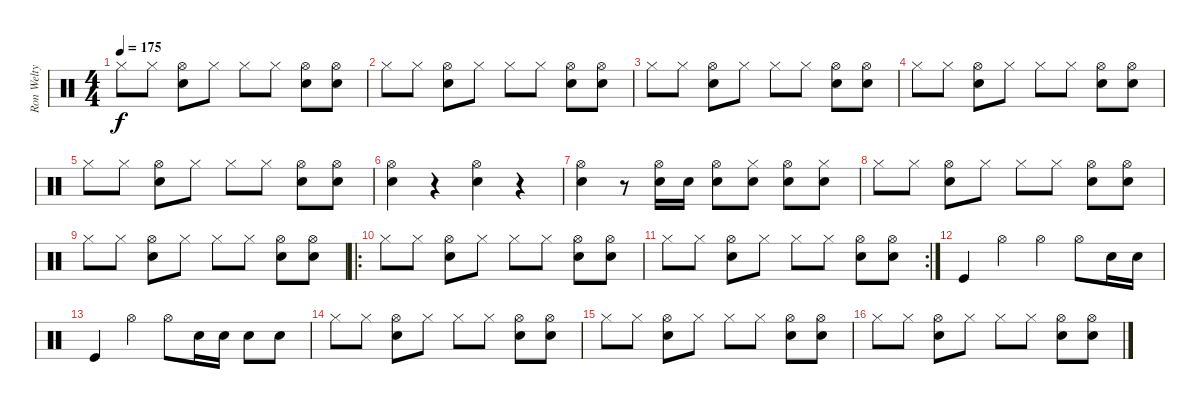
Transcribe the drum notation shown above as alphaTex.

\track ("Ron Welty" "Ron Welty") {instrument percussion}
\staff {score}
\articulation defaults
\ts (4 4)
\tempo 175
\clef neutral
\ks c "Hi-Hat (closed)".8{dy f} "Hi-Hat (closed)".8
("Snare (hit) 2" "Hi-Hat (open)").8 "Hi-Hat (closed)".8 "Hi-Hat (closed)".8 "Hi-Hat (closed)".8 ("Snare (hit) 2" "Hi-Hat (open)").8 ("Snare (hit) 2" "Hi-Hat (open)").8 |
"Hi-Hat (closed)".8 "Hi-Hat (closed)".8 ("Snare (hit) 2" "Hi-Hat (open)").8 "Hi-Hat (closed)".8 "Hi-Hat (closed)".8 "Hi-Hat (closed)".8 ("Snare (hit) 2" "Hi-Hat (open)").8 ("Snare (hit) 2" "Hi-Hat (open)").8 |
"Hi-Hat (closed)".8 "Hi-Hat (closed)".8 ("Snare (hit) 2" "Hi-Hat (open)").8 "Hi-Hat (closed)".8 "Hi-Hat (closed)".8 "Hi-Hat (closed)".8 ("Snare (hit) 2" "Hi-Hat (open)").8 ("Snare (hit) 2" "Hi-Hat (open)").8 |
"Hi-Hat (closed)".8 "Hi-Hat (closed)".8 ("Snare (hit) 2" "Hi-Hat (open)").8 "Hi-Hat (closed)".8 "Hi-Hat (closed)".8 "Hi-Hat (closed)".8 ("Snare (hit) 2" "Hi-Hat (open)").8 ("Snare (hit) 2" "Hi-Hat (open)").8 |
"Hi-Hat (closed)".8 "Hi-Hat (closed)".8 ("Snare (hit) 2" "Hi-Hat (open)").8 "Hi-Hat (closed)".8 "Hi-Hat (closed)".8 "Hi-Hat (closed)".8 ("Snare (hit) 2" "Hi-Hat (open)").8 ("Snare (hit) 2" "Hi-Hat (open)").8 |
("Snare (hit) 2" "Hi-Hat (open)").4 r.4 ("Snare (hit) 2" "Hi-Hat (open)").4 r.4 |
("Snare (hit) 2" "Hi-Hat (open)").4 r.8 ("Snare (hit) 2" "Hi-Hat (open)").16 "Snare (hit) 2".16 ("Snare (hit) 2" "Hi-Hat (open)").8 ("Snare (hit) 2" "Hi-Hat (closed)").8 ("Snare (hit) 2" "Hi-Hat (open)").8 ("Snare (hit) 2" "Hi-Hat (closed)").8 |
"Hi-Hat (closed)".8 "Hi-Hat (closed)".8 ("Snare (hit) 2" "Hi-Hat (open)").8 "Hi-Hat (closed)".8 "Hi-Hat (closed)".8 "Hi-Hat (closed)".8 ("Snare (hit) 2" "Hi-Hat (open)").8 ("Snare (hit) 2" "Hi-Hat (open)").8 |
"Hi-Hat (closed)".8 "Hi-Hat (closed)".8 ("Snare (hit) 2" "Hi-Hat (open)").8 "Hi-Hat (closed)".8 "Hi-Hat (closed)".8 "Hi-Hat (closed)".8 ("Snare (hit) 2" "Hi-Hat (open)").8 ("Snare (hit) 2" "Hi-Hat (open)").8 |
\ro "Hi-Hat (closed)".8 "Hi-Hat (closed)".8
("Snare (hit) 2" "Hi-Hat (open)").8 "Hi-Hat (closed)".8 "Hi-Hat (closed)".8 "Hi-Hat (closed)".8 ("Snare (hit) 2" "Hi-Hat (open)").8 ("Snare (hit) 2" "Hi-Hat (open)").8 |
\rc 2 "Hi-Hat (closed)".8 "Hi-Hat (closed)".8
("Snare (hit) 2" "Hi-Hat (open)").8 "Hi-Hat (closed)".8 "Hi-Hat (closed)".8 "Hi-Hat (closed)".8 ("Snare (hit) 2" "Hi-Hat (open)").8 ("Snare (hit) 2" "Hi-Hat (open)").8 |
"Kick (hit)".4 "Hi-Hat (open)".4 "Hi-Hat (open)".4 "Hi-Hat (open)".8 "Snare (hit) 2".16 "Snare (hit) 2".16 |
"Kick (hit)".4 "Hi-Hat (open)".4 "Hi-Hat (open)".8 "Snare (hit) 2".16 "Snare (hit) 2".16 "Snare (hit) 2".8 "Snare (hit) 2".8 |
"Hi-Hat (closed)".8 "Hi-Hat (closed)".8 ("Snare (hit) 2" "Hi-Hat (open)").8 "Hi-Hat (closed)".8 "Hi-Hat (closed)".8 "Hi-Hat (closed)".8 ("Snare (hit) 2" "Hi-Hat (open)").8 ("Snare (hit) 2" "Hi-Hat (open)").8 |
"Hi-Hat (closed)".8 "Hi-Hat (closed)".8 ("Snare (hit) 2" "Hi-Hat (open)").8 "Hi-Hat (closed)".8 "Hi-Hat (closed)".8 "Hi-Hat (closed)".8 ("Snare (hit) 2" "Hi-Hat (open)").8 ("Snare (hit) 2" "Hi-Hat (open)").8 |
"Hi-Hat (closed)".8 "Hi-Hat (closed)".8 ("Snare (hit) 2" "Hi-Hat (open)").8 "Hi-Hat (closed)".8 "Hi-Hat (closed)".8 "Hi-Hat (closed)".8 ("Snare (hit) 2" "Hi-Hat (open)").8 ("Snare (hit) 2" "Hi-Hat (open)").8
